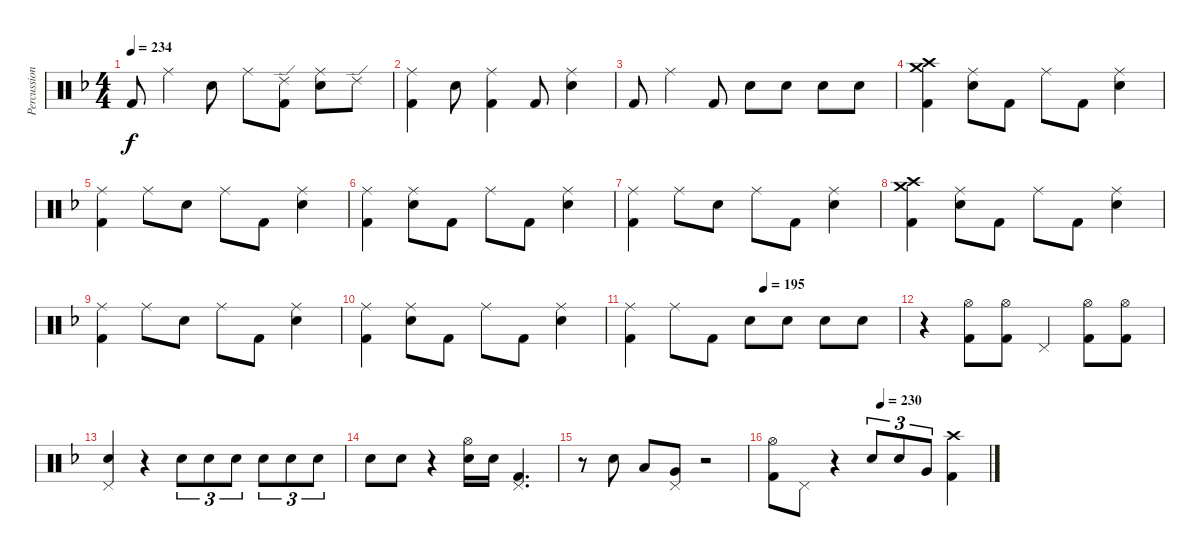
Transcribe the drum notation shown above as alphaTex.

\track ("Percussion" "Percussion") {instrument percussion}
\staff {score}
\articulation defaults
\ts (4 4)
\tempo 234
\clef neutral
\ks f "Kick (hit) 2".8{dy f} "Ride (middle)".4 "Electric Snare (hit)".8 "Ride (middle)".8
("Ride (edge) 2" "Kick (hit) 2").8 ("Ride (middle)" "Electric Snare (hit)").8 "Ride (edge) 2".8 |
("Ride (middle)" "Kick (hit) 2").4 "Electric Snare (hit)".8 ("Ride (middle)" "Kick (hit) 2").4 "Kick (hit) 2".8 ("Ride (middle)" "Electric Snare (hit)").4 |
"Kick (hit) 2".8 "Ride (middle)".4 "Kick (hit) 2".8 "Electric Snare (hit)".8 "Electric Snare (hit)".8 "Electric Snare (hit)".8 "Electric Snare (hit)".8 |
("Crash medium (hit)" "Crash high (hit)" "Kick (hit) 2").4 ("Ride (middle)" "Electric Snare (hit)").8 "Kick (hit) 2".8 "Ride (middle)".8 "Kick (hit) 2".8 ("Ride (middle)" "Electric Snare (hit)").4 |
("Ride (middle)" "Kick (hit) 2").4 "Ride (middle)".8 "Electric Snare (hit)".8 "Ride (middle)".8 "Kick (hit) 2".8 ("Ride (middle)" "Electric Snare (hit)").4 |
("Ride (middle)" "Kick (hit) 2").4 ("Ride (middle)" "Electric Snare (hit)").8 "Kick (hit) 2".8 "Ride (middle)".8 "Kick (hit) 2".8 ("Ride (middle)" "Electric Snare (hit)").4 |
("Ride (middle)" "Kick (hit) 2").4 "Ride (middle)".8 "Electric Snare (hit)".8 "Ride (middle)".8 "Kick (hit) 2".8 ("Ride (middle)" "Electric Snare (hit)").4 |
("Crash medium (hit)" "Crash high (hit)" "Kick (hit) 2").4 ("Ride (middle)" "Electric Snare (hit)").8 "Kick (hit) 2".8 "Ride (middle)".8 "Kick (hit) 2".8 ("Ride (middle)" "Electric Snare (hit)").4 |
("Ride (middle)" "Kick (hit) 2").4 "Ride (middle)".8 "Electric Snare (hit)".8 "Ride (middle)".8 "Kick (hit) 2".8 ("Ride (middle)" "Electric Snare (hit)").4 |
("Ride (middle)" "Kick (hit) 2").4 ("Ride (middle)" "Electric Snare (hit)").8 "Kick (hit) 2".8 "Ride (middle)".8 "Kick (hit) 2".8 ("Ride (middle)" "Electric Snare (hit)").4 |
\tempo (195 0.5)
("Ride (middle)" "Kick (hit) 2").4 "Ride (middle)".8 "Kick (hit) 2".8 "Electric Snare (hit)".8 "Electric Snare (hit)".8 "Electric Snare (hit)".8 "Electric Snare (hit)".8 |
r.4 ("Hi-Hat (open)" "Kick (hit) 2").8 ("Hi-Hat (open)" "Kick (hit) 2").8 "Pedal Hi-Hat (hit)".4 ("Hi-Hat (open)" "Kick (hit) 2").8 ("Hi-Hat (open)" "Kick (hit) 2").8 |
("Pedal Hi-Hat (hit)" "Electric Snare (hit)").4 r.4 "Electric Snare (hit)".8{tu (3 2)} "Electric Snare (hit)".8{tu (3 2)} "Electric Snare (hit)".8{tu (3 2)} "Electric Snare (hit)".8{tu (3 2)} "Electric Snare (hit)".8{tu (3 2)} "Electric Snare (hit)".8{tu (3 2)} |
"Electric Snare (hit)".8 "Electric Snare (hit)".8 r.4 ("Hi-Hat (open)" "Electric Snare (hit)").16 "Electric Snare (hit)".16 ("Pedal Hi-Hat (hit)" "Kick (hit) 2").4{d} |
r.8 "Electric Snare (hit)".8 "Low Tom (hit)".8 ("Pedal Hi-Hat (hit)" "Very Low Tom (hit)").8 r.2 |
\tempo (230 0.5)
("Hi-Hat (open)" "Kick (hit) 2").8 "Pedal Hi-Hat (hit)".8 r.4 "Electric Snare (hit)".8{tu (3 2)} "Electric Snare (hit)".8{tu (3 2)} "Very Low Tom (hit)".8{tu (3 2)} ("Crash high (hit)" "Kick (hit) 2").4
